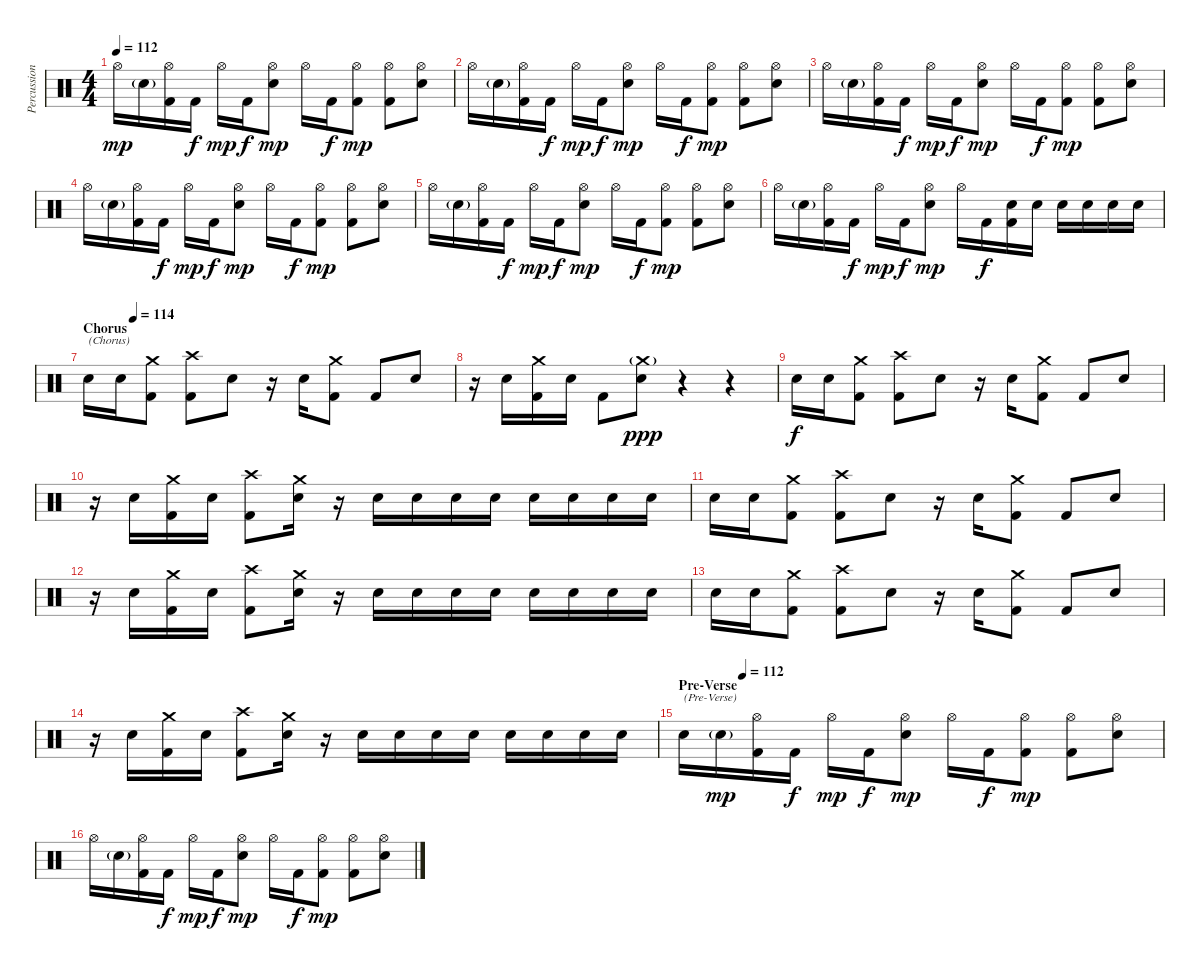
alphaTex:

\track ("Percussion" "Percussion") {instrument percussion}
\staff {score}
\articulation defaults
\ts (4 4)
\tempo 112
\clef neutral
\ks c "Hi-Hat (open)".16{dy mp} "Electric Snare (hit)"{g}.16
("Hi-Hat (open)" "Kick (hit) 2").16 "Kick (hit) 2".16{dy f} "Hi-Hat (open)".16{dy mp} "Kick (hit) 2".16{dy f} ("Hi-Hat (open)" "Electric Snare (hit)").8{dy mp} "Hi-Hat (open)".16 "Kick (hit) 2".16{dy f} ("Hi-Hat (open)" "Kick (hit) 2").8{dy mp} ("Hi-Hat (open)" "Kick (hit) 2").8 ("Hi-Hat (open)" "Electric Snare (hit)").8 |
"Hi-Hat (open)".16 "Electric Snare (hit)"{g}.16 ("Hi-Hat (open)" "Kick (hit) 2").16 "Kick (hit) 2".16{dy f} "Hi-Hat (open)".16{dy mp} "Kick (hit) 2".16{dy f} ("Hi-Hat (open)" "Electric Snare (hit)").8{dy mp} "Hi-Hat (open)".16 "Kick (hit) 2".16{dy f} ("Hi-Hat (open)" "Kick (hit) 2").8{dy mp} ("Hi-Hat (open)" "Kick (hit) 2").8 ("Hi-Hat (open)" "Electric Snare (hit)").8 |
"Hi-Hat (open)".16 "Electric Snare (hit)"{g}.16 ("Hi-Hat (open)" "Kick (hit) 2").16 "Kick (hit) 2".16{dy f} "Hi-Hat (open)".16{dy mp} "Kick (hit) 2".16{dy f} ("Hi-Hat (open)" "Electric Snare (hit)").8{dy mp} "Hi-Hat (open)".16 "Kick (hit) 2".16{dy f} ("Hi-Hat (open)" "Kick (hit) 2").8{dy mp} ("Hi-Hat (open)" "Kick (hit) 2").8 ("Hi-Hat (open)" "Electric Snare (hit)").8 |
"Hi-Hat (open)".16 "Electric Snare (hit)"{g}.16 ("Hi-Hat (open)" "Kick (hit) 2").16 "Kick (hit) 2".16{dy f} "Hi-Hat (open)".16{dy mp} "Kick (hit) 2".16{dy f} ("Hi-Hat (open)" "Electric Snare (hit)").8{dy mp} "Hi-Hat (open)".16 "Kick (hit) 2".16{dy f} ("Hi-Hat (open)" "Kick (hit) 2").8{dy mp} ("Hi-Hat (open)" "Kick (hit) 2").8 ("Hi-Hat (open)" "Electric Snare (hit)").8 |
"Hi-Hat (open)".16 "Electric Snare (hit)"{g}.16 ("Hi-Hat (open)" "Kick (hit) 2").16 "Kick (hit) 2".16{dy f} "Hi-Hat (open)".16{dy mp} "Kick (hit) 2".16{dy f} ("Hi-Hat (open)" "Electric Snare (hit)").8{dy mp} "Hi-Hat (open)".16 "Kick (hit) 2".16{dy f} ("Hi-Hat (open)" "Kick (hit) 2").8{dy mp} ("Hi-Hat (open)" "Kick (hit) 2").8 ("Hi-Hat (open)" "Electric Snare (hit)").8 |
"Hi-Hat (open)".16 "Electric Snare (hit)"{g}.16 ("Hi-Hat (open)" "Kick (hit) 2").16 "Kick (hit) 2".16{dy f} "Hi-Hat (open)".16{dy mp} "Kick (hit) 2".16{dy f} ("Hi-Hat (open)" "Electric Snare (hit)").8{dy mp} "Hi-Hat (open)".16 "Kick (hit) 2".16{dy f} ("Electric Snare (hit)" "Kick (hit) 2").16 "Electric Snare (hit)".16 "Electric Snare (hit)".16 "Electric Snare (hit)".16 "Electric Snare (hit)".16 "Electric Snare (hit)".16 |
\section ("" "Chorus")
\tempo (114 0.125)
"Electric Snare (hit)".16{txt "(Chorus)"} "Electric Snare (hit)".16 ("Crash medium (hit)" "Kick (hit) 2").8 ("Crash high (hit)" "Kick (hit) 2").8 "Electric Snare (hit)".8 r.16 "Electric Snare (hit)".16 ("Crash medium (hit)" "Kick (hit) 2").8 "Kick (hit) 2".8 "Electric Snare (hit)".8 |
r.16 "Electric Snare (hit)".16 ("Crash medium (hit)" "Kick (hit) 2").16 "Electric Snare (hit)".16 "Kick (hit) 2".8 ("Crash medium (hit)"{g} "Electric Snare (hit)").8{dy ppp} r.4 r.4 |
"Electric Snare (hit)".16{dy f} "Electric Snare (hit)".16 ("Crash medium (hit)" "Kick (hit) 2").8 ("Crash high (hit)" "Kick (hit) 2").8 "Electric Snare (hit)".8 r.16 "Electric Snare (hit)".16 ("Crash medium (hit)" "Kick (hit) 2").8 "Kick (hit) 2".8 "Electric Snare (hit)".8 |
r.16 "Electric Snare (hit)".16 ("Crash medium (hit)" "Kick (hit) 2").16 "Electric Snare (hit)".16 ("Crash high (hit)" "Kick (hit) 2").8 ("Crash medium (hit)" "Electric Snare (hit)").16 r.16 "Electric Snare (hit)".16 "Electric Snare (hit)".16 "Electric Snare (hit)".16 "Electric Snare (hit)".16 "Electric Snare (hit)".16 "Electric Snare (hit)".16 "Electric Snare (hit)".16 "Electric Snare (hit)".16 |
"Electric Snare (hit)".16 "Electric Snare (hit)".16 ("Crash medium (hit)" "Kick (hit) 2").8 ("Crash high (hit)" "Kick (hit) 2").8 "Electric Snare (hit)".8 r.16 "Electric Snare (hit)".16 ("Crash medium (hit)" "Kick (hit) 2").8 "Kick (hit) 2".8 "Electric Snare (hit)".8 |
r.16 "Electric Snare (hit)".16 ("Crash medium (hit)" "Kick (hit) 2").16 "Electric Snare (hit)".16 ("Crash high (hit)" "Kick (hit) 2").8 ("Crash medium (hit)" "Electric Snare (hit)").16 r.16 "Electric Snare (hit)".16 "Electric Snare (hit)".16 "Electric Snare (hit)".16 "Electric Snare (hit)".16 "Electric Snare (hit)".16 "Electric Snare (hit)".16 "Electric Snare (hit)".16 "Electric Snare (hit)".16 |
"Electric Snare (hit)".16 "Electric Snare (hit)".16 ("Crash medium (hit)" "Kick (hit) 2").8 ("Crash high (hit)" "Kick (hit) 2").8 "Electric Snare (hit)".8 r.16 "Electric Snare (hit)".16 ("Crash medium (hit)" "Kick (hit) 2").8 "Kick (hit) 2".8 "Electric Snare (hit)".8 |
r.16 "Electric Snare (hit)".16 ("Crash medium (hit)" "Kick (hit) 2").16 "Electric Snare (hit)".16 ("Crash high (hit)" "Kick (hit) 2").8 ("Crash medium (hit)" "Electric Snare (hit)").16 r.16 "Electric Snare (hit)".16 "Electric Snare (hit)".16 "Electric Snare (hit)".16 "Electric Snare (hit)".16 "Electric Snare (hit)".16 "Electric Snare (hit)".16 "Electric Snare (hit)".16 "Electric Snare (hit)".16 |
\section ("" "Pre-Verse")
\tempo (112 0.125)
"Electric Snare (hit)".16{txt "(Pre-Verse)"} "Electric Snare (hit)"{g}.16{dy mp} ("Hi-Hat (open)" "Kick (hit) 2").16 "Kick (hit) 2".16{dy f} "Hi-Hat (open)".16{dy mp} "Kick (hit) 2".16{dy f} ("Hi-Hat (open)" "Electric Snare (hit)").8{dy mp} "Hi-Hat (open)".16 "Kick (hit) 2".16{dy f} ("Hi-Hat (open)" "Kick (hit) 2").8{dy mp} ("Hi-Hat (open)" "Kick (hit) 2").8 ("Hi-Hat (open)" "Electric Snare (hit)").8 |
"Hi-Hat (open)".16 "Electric Snare (hit)"{g}.16 ("Hi-Hat (open)" "Kick (hit) 2").16 "Kick (hit) 2".16{dy f} "Hi-Hat (open)".16{dy mp} "Kick (hit) 2".16{dy f} ("Hi-Hat (open)" "Electric Snare (hit)").8{dy mp} "Hi-Hat (open)".16 "Kick (hit) 2".16{dy f} ("Hi-Hat (open)" "Kick (hit) 2").8{dy mp} ("Hi-Hat (open)" "Kick (hit) 2").8 ("Hi-Hat (open)" "Electric Snare (hit)").8
